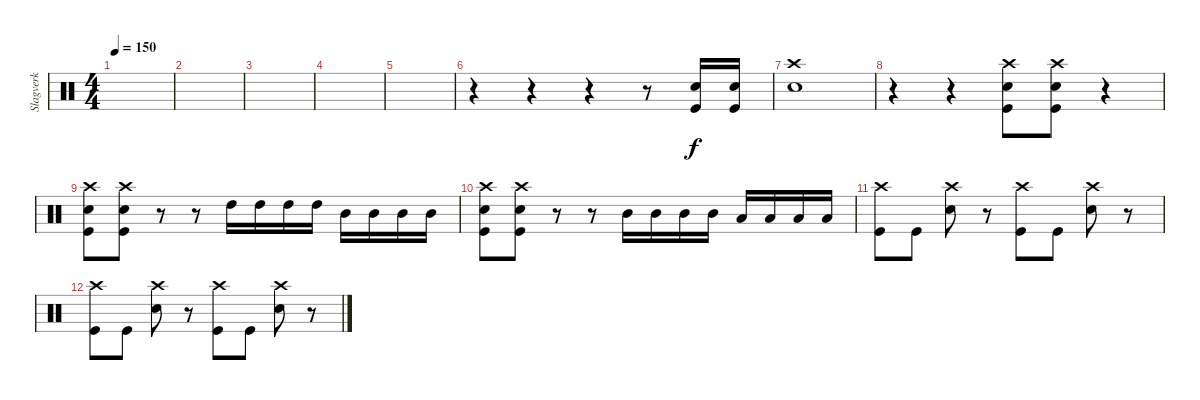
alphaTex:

\track ("Slagverk" "Slagverk") {instrument percussion}
\staff {score}
\articulation defaults
\ts (4 4)
\tempo 150
\clef neutral
\ks c
|
|
|
|
|
r.4 r.4 r.4 r.8 ("Electric Snare (hit)" "Kick (hit)").16 ("Electric Snare (hit)" "Kick (hit)").16 |
("Electric Snare (hit)" "Crash high (hit)").1 |
r.4 r.4 ("Crash high (hit)" "Electric Snare (hit)" "Kick (hit)").8 ("Crash high (hit)" "Electric Snare (hit)" "Kick (hit)").8 r.4 |
("Crash high (hit)" "Electric Snare (hit)" "Kick (hit)").8 ("Crash high (hit)" "Electric Snare (hit)" "Kick (hit)").8 r.8 r.8 "High Tom (hit)".16 "High Tom (hit)".16 "High Tom (hit)".16 "High Tom (hit)".16 "Mid Tom (hit)".16 "Mid Tom (hit)".16 "Mid Tom (hit)".16 "Mid Tom (hit)".16 |
("Crash high (hit)" "Electric Snare (hit)" "Kick (hit)").8 ("Crash high (hit)" "Kick (hit)" "Electric Snare (hit)").8 r.8 r.8 "Mid Tom (hit)".16 "Mid Tom (hit)".16 "Mid Tom (hit)".16 "Mid Tom (hit)".16 "Low Tom (hit)".16 "Low Tom (hit)".16 "Low Tom (hit)".16 "Low Tom (hit)".16 |
("Kick (hit)" "Crash high (hit)").8 "Kick (hit)".8 ("Electric Snare (hit)" "Crash high (hit)").8 r.8 ("Kick (hit)" "Crash high (hit)").8 "Kick (hit)".8 ("Electric Snare (hit)" "Crash high (hit)").8 r.8 |
("Kick (hit)" "Crash high (hit)").8 "Kick (hit)".8 ("Electric Snare (hit)" "Crash high (hit)").8 r.8 ("Kick (hit)" "Crash high (hit)").8 "Kick (hit)".8 ("Electric Snare (hit)" "Crash high (hit)").8 r.8
